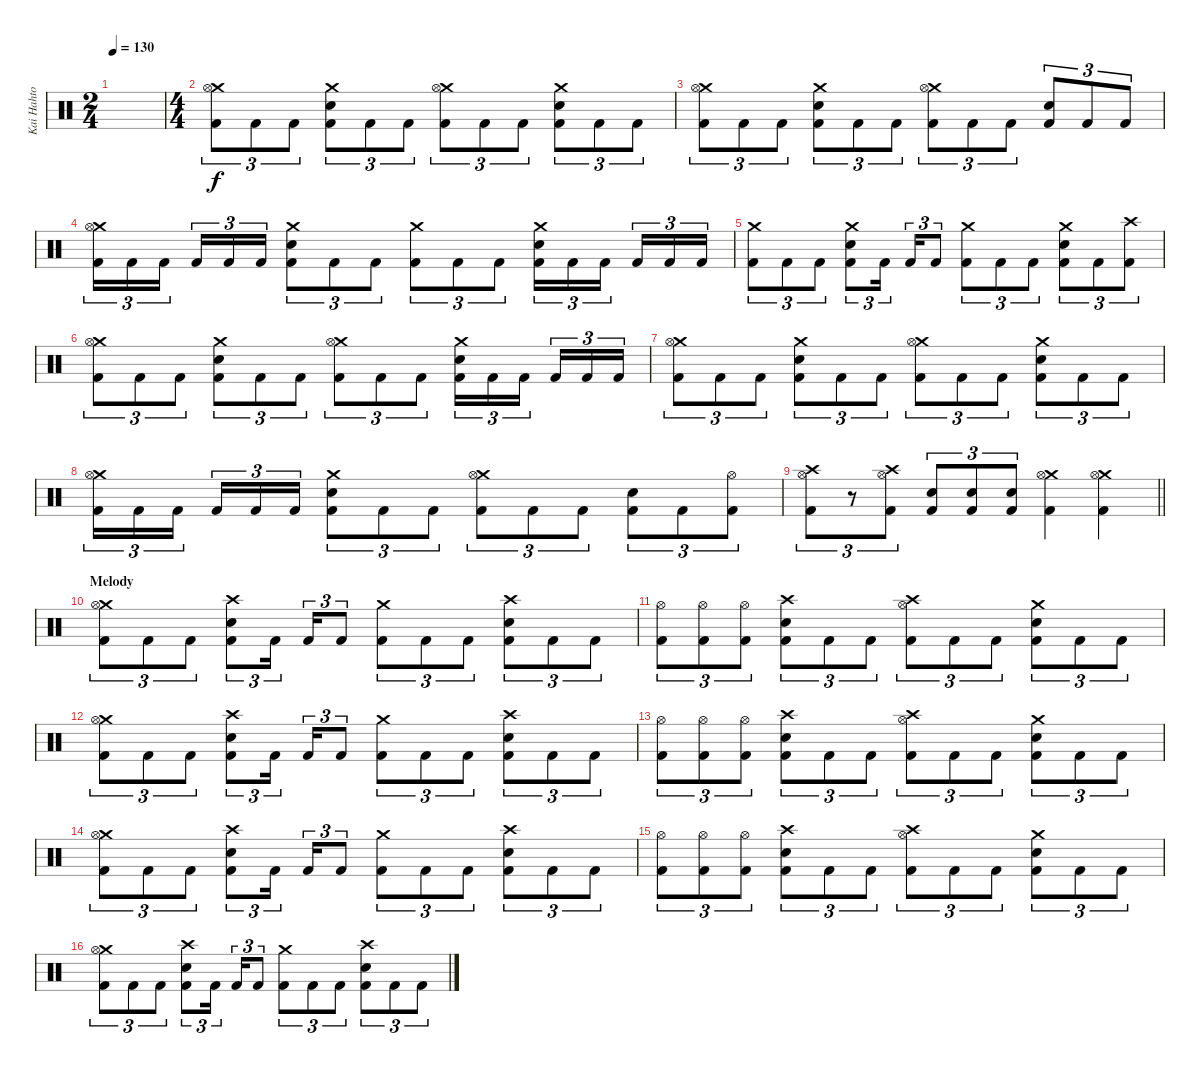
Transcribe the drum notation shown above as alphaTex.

\track ("Kai Hahto" "Kai Hahto") {instrument percussion}
\staff {score}
\articulation defaults
\ts (2 4)
\tempo 130
\clef neutral
\ks c
|
\ts (4 4)
("Crash medium (hit)" "Hi-Hat (open)" "Kick (hit) 2").8{tu (3 2)} "Kick (hit) 2".8{tu (3 2)} "Kick (hit) 2".8{tu (3 2)} ("Crash medium (hit)" "Snare (hit) 2" "Kick (hit) 2").8{tu (3 2)} "Kick (hit) 2".8{tu (3 2)} "Kick (hit) 2".8{tu (3 2)} ("Crash medium (hit)" "Hi-Hat (open)" "Kick (hit) 2").8{tu (3 2)} "Kick (hit) 2".8{tu (3 2)} "Kick (hit) 2".8{tu (3 2)} ("Crash medium (hit)" "Snare (hit) 2" "Kick (hit) 2").8{tu (3 2)} "Kick (hit) 2".8{tu (3 2)} "Kick (hit) 2".8{tu (3 2)} |
("Crash medium (hit)" "Hi-Hat (open)" "Kick (hit) 2").8{tu (3 2)} "Kick (hit) 2".8{tu (3 2)} "Kick (hit) 2".8{tu (3 2)} ("Crash medium (hit)" "Snare (hit) 2" "Kick (hit) 2").8{tu (3 2)} "Kick (hit) 2".8{tu (3 2)} "Kick (hit) 2".8{tu (3 2)} ("Crash medium (hit)" "Hi-Hat (open)" "Kick (hit) 2").8{tu (3 2)} "Kick (hit) 2".8{tu (3 2)} "Kick (hit) 2".8{tu (3 2)} ("Snare (hit) 2" "Kick (hit) 2").8{tu (3 2)} "Kick (hit) 2".8{tu (3 2)} "Kick (hit) 2".8{tu (3 2)} |
("Crash medium (hit)" "Hi-Hat (open)" "Kick (hit) 2").16{tu (3 2)} "Kick (hit) 2".16{tu (3 2)} "Kick (hit) 2".16{tu (3 2) beam splitsecondary} "Kick (hit) 2".16{tu (3 2)} "Kick (hit) 2".16{tu (3 2)} "Kick (hit) 2".16{tu (3 2)} ("Crash medium (hit)" "Snare (hit) 2" "Kick (hit) 2").8{tu (3 2)} "Kick (hit) 2".8{tu (3 2)} "Kick (hit) 2".8{tu (3 2)} ("Crash medium (hit)" "Kick (hit) 2").8{tu (3 2)} "Kick (hit) 2".8{tu (3 2)} "Kick (hit) 2".8{tu (3 2)} ("Crash medium (hit)" "Snare (hit) 2" "Kick (hit) 2").16{tu (3 2)} "Kick (hit) 2".16{tu (3 2)} "Kick (hit) 2".16{tu (3 2) beam splitsecondary} "Kick (hit) 2".16{tu (3 2)} "Kick (hit) 2".16{tu (3 2)} "Kick (hit) 2".16{tu (3 2)} |
("Crash medium (hit)" "Kick (hit) 2").8{tu (3 2)} "Kick (hit) 2".8{tu (3 2)} "Kick (hit) 2".8{tu (3 2)} ("Crash medium (hit)" "Snare (hit) 2" "Kick (hit) 2").8{tu (3 2)} "Kick (hit) 2".16{tu (3 2) beam splitsecondary} "Kick (hit) 2".16{tu (3 2)} "Kick (hit) 2".8{tu (3 2)} ("Crash medium (hit)" "Kick (hit) 2").8{tu (3 2)} "Kick (hit) 2".8{tu (3 2)} "Kick (hit) 2".8{tu (3 2)} ("Crash medium (hit)" "Snare (hit) 2" "Kick (hit) 2").8{tu (3 2)} "Kick (hit) 2".8{tu (3 2)} ("Crash high (hit)" "Kick (hit) 2").8{tu (3 2)} |
("Crash medium (hit)" "Hi-Hat (open)" "Kick (hit) 2").8{tu (3 2)} "Kick (hit) 2".8{tu (3 2)} "Kick (hit) 2".8{tu (3 2)} ("Crash medium (hit)" "Snare (hit) 2" "Kick (hit) 2").8{tu (3 2)} "Kick (hit) 2".8{tu (3 2)} "Kick (hit) 2".8{tu (3 2)} ("Crash medium (hit)" "Hi-Hat (open)" "Kick (hit) 2").8{tu (3 2)} "Kick (hit) 2".8{tu (3 2)} "Kick (hit) 2".8{tu (3 2)} ("Crash medium (hit)" "Snare (hit) 2" "Kick (hit) 2").16{tu (3 2)} "Kick (hit) 2".16{tu (3 2)} "Kick (hit) 2".16{tu (3 2) beam splitsecondary} "Kick (hit) 2".16{tu (3 2)} "Kick (hit) 2".16{tu (3 2)} "Kick (hit) 2".16{tu (3 2)} |
("Crash medium (hit)" "Hi-Hat (open)" "Kick (hit) 2").8{tu (3 2)} "Kick (hit) 2".8{tu (3 2)} "Kick (hit) 2".8{tu (3 2)} ("Crash medium (hit)" "Snare (hit) 2" "Kick (hit) 2").8{tu (3 2)} "Kick (hit) 2".8{tu (3 2)} "Kick (hit) 2".8{tu (3 2)} ("Crash medium (hit)" "Hi-Hat (open)" "Kick (hit) 2").8{tu (3 2)} "Kick (hit) 2".8{tu (3 2)} "Kick (hit) 2".8{tu (3 2)} ("Crash medium (hit)" "Snare (hit) 2" "Kick (hit) 2").8{tu (3 2)} "Kick (hit) 2".8{tu (3 2)} "Kick (hit) 2".8{tu (3 2)} |
("Crash medium (hit)" "Hi-Hat (open)" "Kick (hit) 2").16{tu (3 2)} "Kick (hit) 2".16{tu (3 2)} "Kick (hit) 2".16{tu (3 2) beam splitsecondary} "Kick (hit) 2".16{tu (3 2)} "Kick (hit) 2".16{tu (3 2)} "Kick (hit) 2".16{tu (3 2)} ("Crash medium (hit)" "Snare (hit) 2" "Kick (hit) 2").8{tu (3 2)} "Kick (hit) 2".8{tu (3 2)} "Kick (hit) 2".8{tu (3 2)} ("Crash medium (hit)" "Hi-Hat (open)" "Kick (hit) 2").8{tu (3 2)} "Kick (hit) 2".8{tu (3 2)} "Kick (hit) 2".8{tu (3 2)} ("Snare (hit) 2" "Kick (hit) 2").8{tu (3 2)} "Kick (hit) 2".8{tu (3 2)} ("Hi-Hat (open)" "Kick (hit) 2").8{tu (3 2)} |
\barLineRight lightlight
("Crash high (hit)" "Hi-Hat (open)" "Kick (hit) 2").8{tu (3 2)} r.8{tu (3 2)} ("Crash high (hit)" "Hi-Hat (open)" "Kick (hit) 2").8{tu (3 2)} ("Snare (hit) 2" "Kick (hit) 2").8{tu (3 2)} ("Snare (hit) 2" "Kick (hit) 2").8{tu (3 2)} ("Snare (hit) 2" "Kick (hit) 2").8{tu (3 2)} ("Crash medium (hit)" "Hi-Hat (open)" "Kick (hit) 2").4 ("Crash medium (hit)" "Hi-Hat (open)" "Kick (hit) 2").4 |
\section ("" "Melody")
("Crash medium (hit)" "Hi-Hat (open)" "Kick (hit) 2").8{tu (3 2)} "Kick (hit) 2".8{tu (3 2)} "Kick (hit) 2".8{tu (3 2)} ("Crash high (hit)" "Snare (hit) 2" "Kick (hit) 2").8{tu (3 2)} "Kick (hit) 2".16{tu (3 2) beam splitsecondary} "Kick (hit) 2".16{tu (3 2)} "Kick (hit) 2".8{tu (3 2)} ("Crash medium (hit)" "Kick (hit) 2").8{tu (3 2)} "Kick (hit) 2".8{tu (3 2)} "Kick (hit) 2".8{tu (3 2)} ("Crash high (hit)" "Snare (hit) 2" "Kick (hit) 2").8{tu (3 2)} "Kick (hit) 2".8{tu (3 2)} "Kick (hit) 2".8{tu (3 2)} |
("Hi-Hat (open)" "Kick (hit) 2").8{tu (3 2)} ("Hi-Hat (open)" "Kick (hit) 2").8{tu (3 2)} ("Hi-Hat (open)" "Kick (hit) 2").8{tu (3 2)} ("Crash high (hit)" "Snare (hit) 2" "Kick (hit) 2").8{tu (3 2)} "Kick (hit) 2".8{tu (3 2)} "Kick (hit) 2".8{tu (3 2)} ("Crash high (hit)" "Hi-Hat (open)" "Kick (hit) 2").8{tu (3 2)} "Kick (hit) 2".8{tu (3 2)} "Kick (hit) 2".8{tu (3 2)} ("Crash medium (hit)" "Snare (hit) 2" "Kick (hit) 2").8{tu (3 2)} "Kick (hit) 2".8{tu (3 2)} "Kick (hit) 2".8{tu (3 2)} |
("Crash medium (hit)" "Hi-Hat (open)" "Kick (hit) 2").8{tu (3 2)} "Kick (hit) 2".8{tu (3 2)} "Kick (hit) 2".8{tu (3 2)} ("Crash high (hit)" "Snare (hit) 2" "Kick (hit) 2").8{tu (3 2)} "Kick (hit) 2".16{tu (3 2) beam splitsecondary} "Kick (hit) 2".16{tu (3 2)} "Kick (hit) 2".8{tu (3 2)} ("Crash medium (hit)" "Kick (hit) 2").8{tu (3 2)} "Kick (hit) 2".8{tu (3 2)} "Kick (hit) 2".8{tu (3 2)} ("Crash high (hit)" "Snare (hit) 2" "Kick (hit) 2").8{tu (3 2)} "Kick (hit) 2".8{tu (3 2)} "Kick (hit) 2".8{tu (3 2)} |
("Hi-Hat (open)" "Kick (hit) 2").8{tu (3 2)} ("Hi-Hat (open)" "Kick (hit) 2").8{tu (3 2)} ("Hi-Hat (open)" "Kick (hit) 2").8{tu (3 2)} ("Crash high (hit)" "Snare (hit) 2" "Kick (hit) 2").8{tu (3 2)} "Kick (hit) 2".8{tu (3 2)} "Kick (hit) 2".8{tu (3 2)} ("Crash high (hit)" "Hi-Hat (open)" "Kick (hit) 2").8{tu (3 2)} "Kick (hit) 2".8{tu (3 2)} "Kick (hit) 2".8{tu (3 2)} ("Crash medium (hit)" "Snare (hit) 2" "Kick (hit) 2").8{tu (3 2)} "Kick (hit) 2".8{tu (3 2)} "Kick (hit) 2".8{tu (3 2)} |
("Crash medium (hit)" "Hi-Hat (open)" "Kick (hit) 2").8{tu (3 2)} "Kick (hit) 2".8{tu (3 2)} "Kick (hit) 2".8{tu (3 2)} ("Crash high (hit)" "Snare (hit) 2" "Kick (hit) 2").8{tu (3 2)} "Kick (hit) 2".16{tu (3 2) beam splitsecondary} "Kick (hit) 2".16{tu (3 2)} "Kick (hit) 2".8{tu (3 2)} ("Crash medium (hit)" "Kick (hit) 2").8{tu (3 2)} "Kick (hit) 2".8{tu (3 2)} "Kick (hit) 2".8{tu (3 2)} ("Crash high (hit)" "Snare (hit) 2" "Kick (hit) 2").8{tu (3 2)} "Kick (hit) 2".8{tu (3 2)} "Kick (hit) 2".8{tu (3 2)} |
("Hi-Hat (open)" "Kick (hit) 2").8{tu (3 2)} ("Hi-Hat (open)" "Kick (hit) 2").8{tu (3 2)} ("Hi-Hat (open)" "Kick (hit) 2").8{tu (3 2)} ("Crash high (hit)" "Snare (hit) 2" "Kick (hit) 2").8{tu (3 2)} "Kick (hit) 2".8{tu (3 2)} "Kick (hit) 2".8{tu (3 2)} ("Crash high (hit)" "Hi-Hat (open)" "Kick (hit) 2").8{tu (3 2)} "Kick (hit) 2".8{tu (3 2)} "Kick (hit) 2".8{tu (3 2)} ("Crash medium (hit)" "Snare (hit) 2" "Kick (hit) 2").8{tu (3 2)} "Kick (hit) 2".8{tu (3 2)} "Kick (hit) 2".8{tu (3 2)} |
("Crash medium (hit)" "Hi-Hat (open)" "Kick (hit) 2").8{tu (3 2)} "Kick (hit) 2".8{tu (3 2)} "Kick (hit) 2".8{tu (3 2)} ("Crash high (hit)" "Snare (hit) 2" "Kick (hit) 2").8{tu (3 2)} "Kick (hit) 2".16{tu (3 2) beam splitsecondary} "Kick (hit) 2".16{tu (3 2)} "Kick (hit) 2".8{tu (3 2)} ("Crash medium (hit)" "Kick (hit) 2").8{tu (3 2)} "Kick (hit) 2".8{tu (3 2)} "Kick (hit) 2".8{tu (3 2)} ("Crash high (hit)" "Snare (hit) 2" "Kick (hit) 2").8{tu (3 2)} "Kick (hit) 2".8{tu (3 2)} "Kick (hit) 2".8{tu (3 2)}
